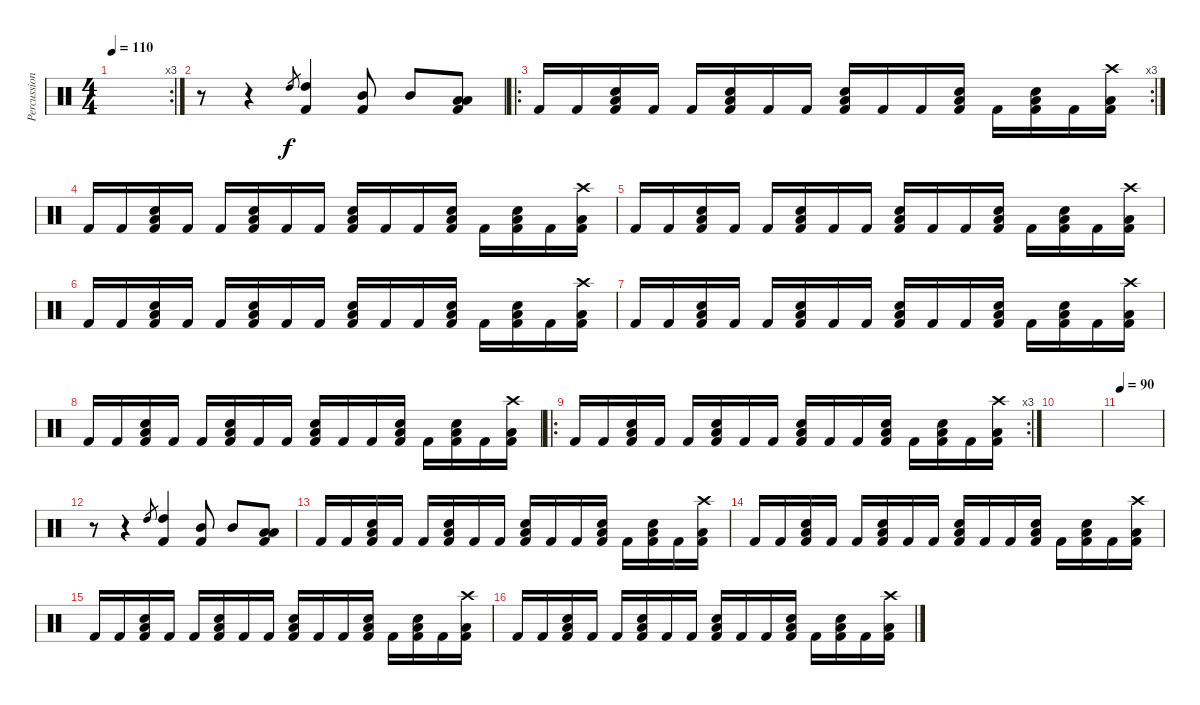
\track ("Percussions" "Percussion") {instrument percussion}
\staff {score}
\articulation defaults
\rc 3
\ts (4 4)
\tempo 110
\clef neutral
\ks c
|
r.8 r.4 "High Tom (hit)".8{gr} ("High Tom (hit)" "Kick (hit) 2").4 ("Mid Tom (hit)" "Kick (hit) 2").8 "Mid Tom (hit)".8 ("Low Tom (hit)" "Low Tom (hit)" "Kick (hit) 2").8 |
\ro
\rc 3 "Kick (hit) 2".16 "Kick (hit) 2".16
("Snare (hit) 2" "Low Tom (hit)" "Kick (hit) 2").16 "Kick (hit) 2".16 "Kick (hit) 2".16 ("Snare (hit) 2" "Low Tom (hit)" "Kick (hit) 2").16 "Kick (hit) 2".16 "Kick (hit) 2".16 ("Snare (hit) 2" "Low Tom (hit)" "Kick (hit) 2").16 "Kick (hit) 2".16 "Kick (hit) 2".16 ("Snare (hit) 2" "Low Tom (hit)" "Kick (hit) 2").16 "Kick (hit) 2".16 ("Snare (hit) 2" "Low Tom (hit)" "Kick (hit) 2").16 "Kick (hit) 2".16 ("Crash high (hit)" "Low Tom (hit)" "Kick (hit) 2").16 |
"Kick (hit) 2".16 "Kick (hit) 2".16 ("Snare (hit) 2" "Low Tom (hit)" "Kick (hit) 2").16 "Kick (hit) 2".16 "Kick (hit) 2".16 ("Snare (hit) 2" "Low Tom (hit)" "Kick (hit) 2").16 "Kick (hit) 2".16 "Kick (hit) 2".16 ("Snare (hit) 2" "Low Tom (hit)" "Kick (hit) 2").16 "Kick (hit) 2".16 "Kick (hit) 2".16 ("Snare (hit) 2" "Low Tom (hit)" "Kick (hit) 2").16 "Kick (hit) 2".16 ("Snare (hit) 2" "Low Tom (hit)" "Kick (hit) 2").16 "Kick (hit) 2".16 ("Crash high (hit)" "Low Tom (hit)" "Kick (hit) 2").16 |
"Kick (hit) 2".16 "Kick (hit) 2".16 ("Snare (hit) 2" "Low Tom (hit)" "Kick (hit) 2").16 "Kick (hit) 2".16 "Kick (hit) 2".16 ("Snare (hit) 2" "Low Tom (hit)" "Kick (hit) 2").16 "Kick (hit) 2".16 "Kick (hit) 2".16 ("Snare (hit) 2" "Low Tom (hit)" "Kick (hit) 2").16 "Kick (hit) 2".16 "Kick (hit) 2".16 ("Snare (hit) 2" "Low Tom (hit)" "Kick (hit) 2").16 "Kick (hit) 2".16 ("Snare (hit) 2" "Low Tom (hit)" "Kick (hit) 2").16 "Kick (hit) 2".16 ("Crash high (hit)" "Low Tom (hit)" "Kick (hit) 2").16 |
"Kick (hit) 2".16 "Kick (hit) 2".16 ("Snare (hit) 2" "Low Tom (hit)" "Kick (hit) 2").16 "Kick (hit) 2".16 "Kick (hit) 2".16 ("Snare (hit) 2" "Low Tom (hit)" "Kick (hit) 2").16 "Kick (hit) 2".16 "Kick (hit) 2".16 ("Snare (hit) 2" "Low Tom (hit)" "Kick (hit) 2").16 "Kick (hit) 2".16 "Kick (hit) 2".16 ("Snare (hit) 2" "Low Tom (hit)" "Kick (hit) 2").16 "Kick (hit) 2".16 ("Snare (hit) 2" "Low Tom (hit)" "Kick (hit) 2").16 "Kick (hit) 2".16 ("Crash high (hit)" "Low Tom (hit)" "Kick (hit) 2").16 |
"Kick (hit) 2".16 "Kick (hit) 2".16 ("Snare (hit) 2" "Low Tom (hit)" "Kick (hit) 2").16 "Kick (hit) 2".16 "Kick (hit) 2".16 ("Snare (hit) 2" "Low Tom (hit)" "Kick (hit) 2").16 "Kick (hit) 2".16 "Kick (hit) 2".16 ("Snare (hit) 2" "Low Tom (hit)" "Kick (hit) 2").16 "Kick (hit) 2".16 "Kick (hit) 2".16 ("Snare (hit) 2" "Low Tom (hit)" "Kick (hit) 2").16 "Kick (hit) 2".16 ("Snare (hit) 2" "Low Tom (hit)" "Kick (hit) 2").16 "Kick (hit) 2".16 ("Crash high (hit)" "Low Tom (hit)" "Kick (hit) 2").16 |
"Kick (hit) 2".16 "Kick (hit) 2".16 ("Snare (hit) 2" "Low Tom (hit)" "Kick (hit) 2").16 "Kick (hit) 2".16 "Kick (hit) 2".16 ("Snare (hit) 2" "Low Tom (hit)" "Kick (hit) 2").16 "Kick (hit) 2".16 "Kick (hit) 2".16 ("Snare (hit) 2" "Low Tom (hit)" "Kick (hit) 2").16 "Kick (hit) 2".16 "Kick (hit) 2".16 ("Snare (hit) 2" "Low Tom (hit)" "Kick (hit) 2").16 "Kick (hit) 2".16 ("Snare (hit) 2" "Low Tom (hit)" "Kick (hit) 2").16 "Kick (hit) 2".16 ("Crash high (hit)" "Low Tom (hit)" "Kick (hit) 2").16 |
\ro
\rc 3 "Kick (hit) 2".16 "Kick (hit) 2".16
("Snare (hit) 2" "Low Tom (hit)" "Kick (hit) 2").16 "Kick (hit) 2".16 "Kick (hit) 2".16 ("Snare (hit) 2" "Low Tom (hit)" "Kick (hit) 2").16 "Kick (hit) 2".16 "Kick (hit) 2".16 ("Snare (hit) 2" "Low Tom (hit)" "Kick (hit) 2").16 "Kick (hit) 2".16 "Kick (hit) 2".16 ("Snare (hit) 2" "Low Tom (hit)" "Kick (hit) 2").16 "Kick (hit) 2".16 ("Snare (hit) 2" "Low Tom (hit)" "Kick (hit) 2").16 "Kick (hit) 2".16 ("Crash high (hit)" "Low Tom (hit)" "Kick (hit) 2").16 |
|
\tempo 90
|
r.8 r.4 "High Tom (hit)".8{gr} ("High Tom (hit)" "Kick (hit) 2").4 ("Mid Tom (hit)" "Kick (hit) 2").8 "Mid Tom (hit)".8 ("Low Tom (hit)" "Low Tom (hit)" "Kick (hit) 2").8 |
"Kick (hit) 2".16 "Kick (hit) 2".16 ("Snare (hit) 2" "Low Tom (hit)" "Kick (hit) 2").16 "Kick (hit) 2".16 "Kick (hit) 2".16 ("Snare (hit) 2" "Low Tom (hit)" "Kick (hit) 2").16 "Kick (hit) 2".16 "Kick (hit) 2".16 ("Snare (hit) 2" "Low Tom (hit)" "Kick (hit) 2").16 "Kick (hit) 2".16 "Kick (hit) 2".16 ("Snare (hit) 2" "Low Tom (hit)" "Kick (hit) 2").16 "Kick (hit) 2".16 ("Snare (hit) 2" "Low Tom (hit)" "Kick (hit) 2").16 "Kick (hit) 2".16 ("Crash high (hit)" "Low Tom (hit)" "Kick (hit) 2").16 |
"Kick (hit) 2".16 "Kick (hit) 2".16 ("Snare (hit) 2" "Low Tom (hit)" "Kick (hit) 2").16 "Kick (hit) 2".16 "Kick (hit) 2".16 ("Snare (hit) 2" "Low Tom (hit)" "Kick (hit) 2").16 "Kick (hit) 2".16 "Kick (hit) 2".16 ("Snare (hit) 2" "Low Tom (hit)" "Kick (hit) 2").16 "Kick (hit) 2".16 "Kick (hit) 2".16 ("Snare (hit) 2" "Low Tom (hit)" "Kick (hit) 2").16 "Kick (hit) 2".16 ("Snare (hit) 2" "Low Tom (hit)" "Kick (hit) 2").16 "Kick (hit) 2".16 ("Crash high (hit)" "Low Tom (hit)" "Kick (hit) 2").16 |
"Kick (hit) 2".16 "Kick (hit) 2".16 ("Snare (hit) 2" "Low Tom (hit)" "Kick (hit) 2").16 "Kick (hit) 2".16 "Kick (hit) 2".16 ("Snare (hit) 2" "Low Tom (hit)" "Kick (hit) 2").16 "Kick (hit) 2".16 "Kick (hit) 2".16 ("Snare (hit) 2" "Low Tom (hit)" "Kick (hit) 2").16 "Kick (hit) 2".16 "Kick (hit) 2".16 ("Snare (hit) 2" "Low Tom (hit)" "Kick (hit) 2").16 "Kick (hit) 2".16 ("Snare (hit) 2" "Low Tom (hit)" "Kick (hit) 2").16 "Kick (hit) 2".16 ("Crash high (hit)" "Low Tom (hit)" "Kick (hit) 2").16 |
"Kick (hit) 2".16 "Kick (hit) 2".16 ("Snare (hit) 2" "Low Tom (hit)" "Kick (hit) 2").16 "Kick (hit) 2".16 "Kick (hit) 2".16 ("Snare (hit) 2" "Low Tom (hit)" "Kick (hit) 2").16 "Kick (hit) 2".16 "Kick (hit) 2".16 ("Snare (hit) 2" "Low Tom (hit)" "Kick (hit) 2").16 "Kick (hit) 2".16 "Kick (hit) 2".16 ("Snare (hit) 2" "Low Tom (hit)" "Kick (hit) 2").16 "Kick (hit) 2".16 ("Snare (hit) 2" "Low Tom (hit)" "Kick (hit) 2").16 "Kick (hit) 2".16 ("Crash high (hit)" "Low Tom (hit)" "Kick (hit) 2").16
